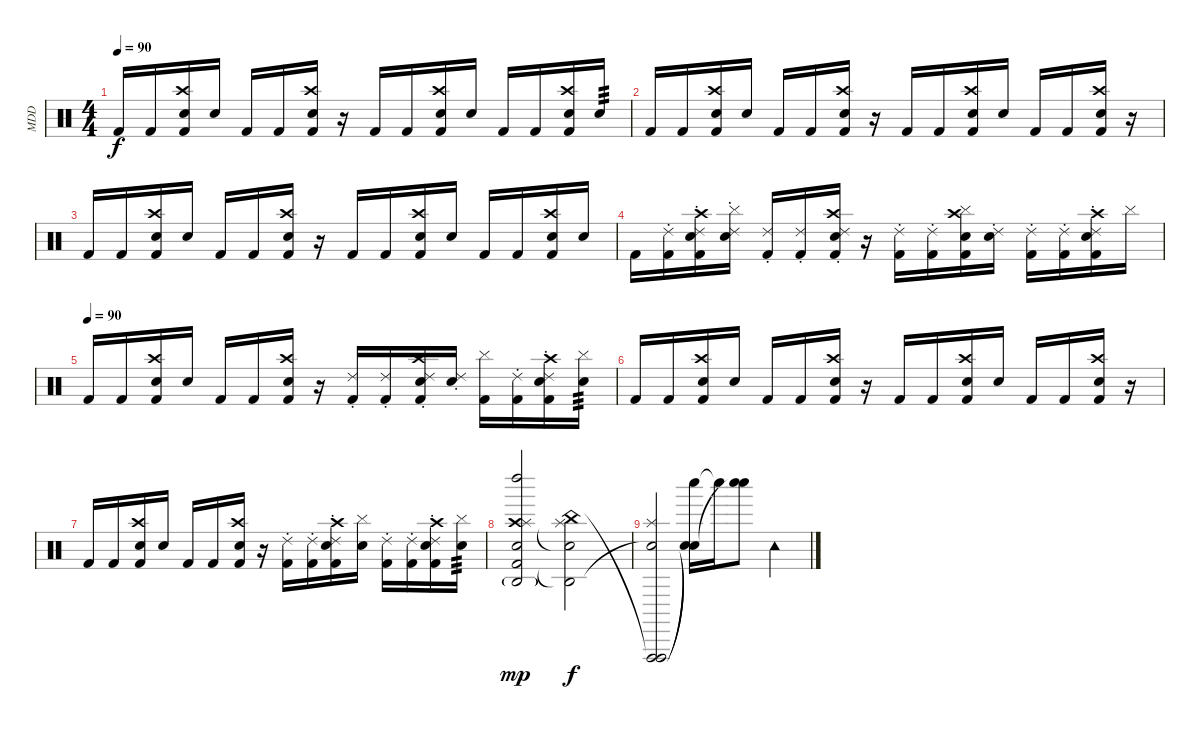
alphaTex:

\track ("MDD" "MDD") {instrument percussion}
\staff {score}
\articulation defaults
\ts (4 4)
\tempo 90
\clef neutral
\ks c "Kick (hit) 2".16{dy f} "Kick (hit) 2".16
("Crash high (hit)" "Kick (hit) 2" "Snare (hit) 2").16 "Snare (hit) 2".16 "Kick (hit) 2".16 "Kick (hit) 2".16 ("Crash high (hit)" "Kick (hit) 2" "Snare (hit) 2").16 r.16 "Kick (hit) 2".16 "Kick (hit) 2".16 ("Crash high (hit)" "Kick (hit) 2" "Snare (hit) 2").16 "Snare (hit) 2".16 "Kick (hit) 2".16 "Kick (hit) 2".16 ("Crash high (hit)" "Kick (hit) 2" "Snare (hit) 2").16 "Snare (hit) 2".16{tp 3} |
"Kick (hit) 2".16 "Kick (hit) 2".16 ("Crash high (hit)" "Kick (hit) 2" "Snare (hit) 2").16 "Snare (hit) 2".16 "Kick (hit) 2".16 "Kick (hit) 2".16 ("Crash high (hit)" "Kick (hit) 2" "Snare (hit) 2").16 r.16 "Kick (hit) 2".16 "Kick (hit) 2".16 ("Crash high (hit)" "Kick (hit) 2" "Snare (hit) 2").16 "Snare (hit) 2".16 "Kick (hit) 2".16 "Kick (hit) 2".16 ("Crash high (hit)" "Kick (hit) 2" "Snare (hit) 2").16 r.16 |
"Kick (hit) 2".16 "Kick (hit) 2".16 ("Crash high (hit)" "Kick (hit) 2" "Snare (hit) 2").16 "Snare (hit) 2".16 "Kick (hit) 2".16 "Kick (hit) 2".16 ("Crash high (hit)" "Kick (hit) 2" "Snare (hit) 2").16 r.16 "Kick (hit) 2".16 "Kick (hit) 2".16 ("Crash high (hit)" "Kick (hit) 2" "Snare (hit) 2").16 "Snare (hit) 2".16 "Kick (hit) 2".16 "Kick (hit) 2".16 ("Crash high (hit)" "Kick (hit) 2" "Snare (hit) 2").16 "Snare (hit) 2".16 |
"Kick (hit) 2".16 ("Ride (choke) 2" "Kick (hit) 2").16 ("Crash high (hit)" "Ride (choke) 2" "Kick (hit) 2" "Snare (hit) 2").16 ("Ride (choke) 2" "Cymbal (hit)" "Snare (hit) 2").16 ("Ride (choke) 2" "Kick (hit) 2").16 ("Ride (choke) 2" "Kick (hit) 2").16 ("Crash high (hit)" "Ride (choke) 2" "Kick (hit) 2" "Snare (hit) 2").16 r.16 ("Ride (choke) 2" "Kick (hit) 2").16 ("Ride (choke) 2" "Kick (hit) 2").16 ("Crash high (hit)" "Cymbal (hit)" "Kick (hit) 2" "Snare (hit) 2").16 ("Ride (choke) 2" "Snare (hit) 2").16 ("Ride (choke) 2" "Kick (hit) 2").16 ("Ride (choke) 2" "Kick (hit) 2").16 ("Crash high (hit)" "Ride (choke) 2" "Kick (hit) 2" "Snare (hit) 2").16 "Cymbal (hit)".16 |
\tempo (90)
"Kick (hit) 2".16 "Kick (hit) 2".16 ("Crash high (hit)" "Kick (hit) 2" "Snare (hit) 2").16 "Snare (hit) 2".16 "Kick (hit) 2".16 "Kick (hit) 2".16 ("Crash high (hit)" "Kick (hit) 2" "Snare (hit) 2").16 r.16 ("Ride (choke) 2" "Kick (hit) 2").16 ("Ride (choke) 2" "Kick (hit) 2").16 ("Crash high (hit)" "Ride (choke) 2" "Kick (hit) 2" "Snare (hit) 2").16 ("Ride (choke) 2" "Snare (hit) 2").16 ("Cymbal (hit)" "Kick (hit) 2").16 ("Ride (choke) 2" "Kick (hit) 2").16 ("Crash high (hit)" "Ride (choke) 2" "Kick (hit) 2" "Snare (hit) 2").16 ("Cymbal (hit)" "Snare (hit) 2").16{tp 3} |
"Kick (hit) 2".16 "Kick (hit) 2".16 ("Crash high (hit)" "Kick (hit) 2" "Snare (hit) 2").16 "Snare (hit) 2".16 "Kick (hit) 2".16 "Kick (hit) 2".16 ("Crash high (hit)" "Kick (hit) 2" "Snare (hit) 2").16 r.16 "Kick (hit) 2".16 "Kick (hit) 2".16 ("Crash high (hit)" "Kick (hit) 2" "Snare (hit) 2").16 "Snare (hit) 2".16 "Kick (hit) 2".16 "Kick (hit) 2".16 ("Crash high (hit)" "Kick (hit) 2" "Snare (hit) 2").16 r.16 |
"Kick (hit) 2".16 "Kick (hit) 2".16 ("Crash high (hit)" "Kick (hit) 2" "Snare (hit) 2").16 "Snare (hit) 2".16 "Kick (hit) 2".16 "Kick (hit) 2".16 ("Crash high (hit)" "Kick (hit) 2" "Snare (hit) 2").16 r.16 ("Ride (choke) 2" "Kick (hit) 2").16 ("Ride (choke) 2" "Kick (hit) 2").16 ("Crash high (hit)" "Ride (choke) 2" "Kick (hit) 2" "Snare (hit) 2").16 ("Cymbal (hit)" "Snare (hit) 2").16 ("Ride (choke) 2" "Kick (hit) 2").16 ("Ride (choke) 2" "Kick (hit) 2").16 ("Crash high (hit)" "Ride (choke) 2" "Kick (hit) 2" "Snare (hit) 2").16 ("Cymbal (hit)" "Snare (hit) 2").16{tp 3} |
("Crash high (hit)" "Splash (hit)" "Left Maraca (hit)" "Kick (hit) 2" "Electric Snare (hit)" "Agogo high (hit)"{g}).2{dy mp} ("Splash (hit)" "Snare (hit)"{t} "China (hit)" "Agogo high (hit)"{t}).2{dy f} |
("Splash (hit)" "Vibraslap (hit)" "Vibraslap (hit)"{t} "Snare (hit)"{t}).2 ("Whistle low (hit)" "Snare (hit)"{t} "Snare (hit)"{t}).16 "Whistle low (hit)"{t}.16 ("Whistle low (hit)" "Whistle low (hit)"{t}).8 "Tambourine (hit)".4
